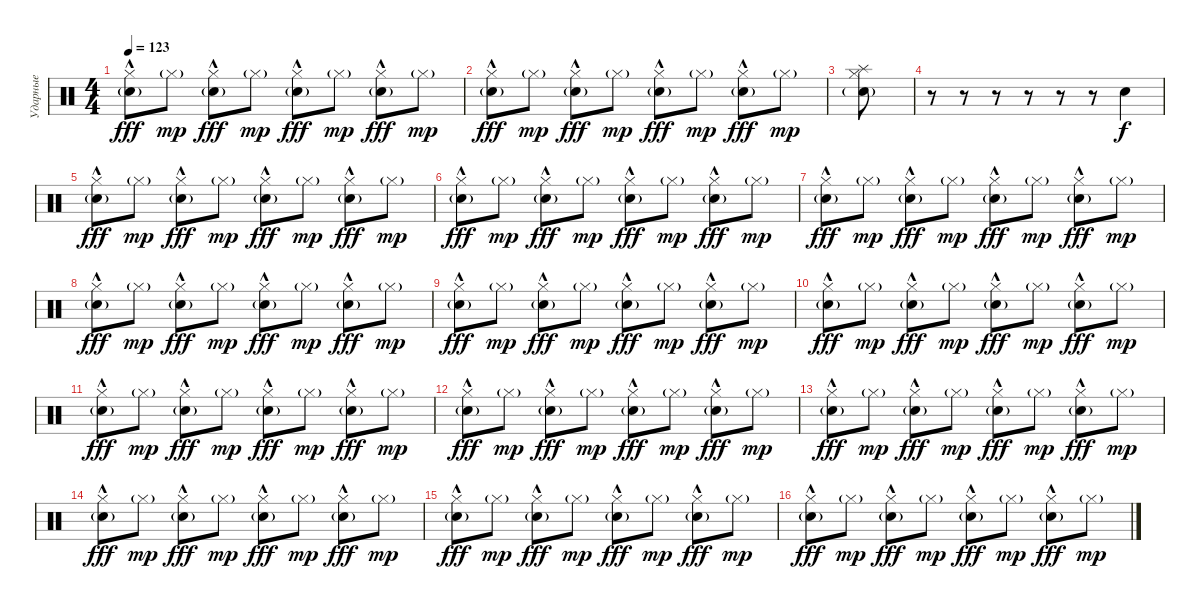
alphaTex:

\track ("Ударные" "Ударные") {instrument percussion}
\staff {score}
\articulation defaults
\ts (4 4)
\tempo 123
\clef neutral
\ks c
("Electric Snare (hit)"{g} "Hi-Hat (closed)"{hac}).8{dy fff} "Hi-Hat (closed)"{g}.8{dy mp} ("Electric Snare (hit)"{g} "Hi-Hat (closed)"{hac}).8{dy fff} "Hi-Hat (closed)"{g}.8{dy mp} ("Electric Snare (hit)"{g} "Hi-Hat (closed)"{hac}).8{dy fff} "Hi-Hat (closed)"{g}.8{dy mp} ("Electric Snare (hit)"{g} "Hi-Hat (closed)"{hac}).8{dy fff} "Hi-Hat (closed)"{g}.8{dy mp} |
("Electric Snare (hit)"{g} "Hi-Hat (closed)"{hac}).8{dy fff} "Hi-Hat (closed)"{g}.8{dy mp} ("Electric Snare (hit)"{g} "Hi-Hat (closed)"{hac}).8{dy fff} "Hi-Hat (closed)"{g}.8{dy mp} ("Electric Snare (hit)"{g} "Hi-Hat (closed)"{hac}).8{dy fff} "Hi-Hat (closed)"{g}.8{dy mp} ("Electric Snare (hit)"{g} "Hi-Hat (closed)"{hac}).8{dy fff} "Hi-Hat (closed)"{g}.8{dy mp} |
("Splash (hit)" "Electric Snare (hit)"{g} "Hi-Hat (closed)").8 |
r.8 r.8 r.8 r.8 r.8 r.8 "Electric Snare (hit)".4{dy f} |
("Electric Snare (hit)"{g} "Hi-Hat (closed)"{hac}).8{dy fff} "Hi-Hat (closed)"{g}.8{dy mp} ("Electric Snare (hit)"{g} "Hi-Hat (closed)"{hac}).8{dy fff} "Hi-Hat (closed)"{g}.8{dy mp} ("Electric Snare (hit)"{g} "Hi-Hat (closed)"{hac}).8{dy fff} "Hi-Hat (closed)"{g}.8{dy mp} ("Electric Snare (hit)"{g} "Hi-Hat (closed)"{hac}).8{dy fff} "Hi-Hat (closed)"{g}.8{dy mp} |
("Electric Snare (hit)"{g} "Hi-Hat (closed)"{hac}).8{dy fff} "Hi-Hat (closed)"{g}.8{dy mp} ("Electric Snare (hit)"{g} "Hi-Hat (closed)"{hac}).8{dy fff} "Hi-Hat (closed)"{g}.8{dy mp} ("Electric Snare (hit)"{g} "Hi-Hat (closed)"{hac}).8{dy fff} "Hi-Hat (closed)"{g}.8{dy mp} ("Electric Snare (hit)"{g} "Hi-Hat (closed)"{hac}).8{dy fff} "Hi-Hat (closed)"{g}.8{dy mp} |
("Electric Snare (hit)"{g} "Hi-Hat (closed)"{hac}).8{dy fff} "Hi-Hat (closed)"{g}.8{dy mp} ("Electric Snare (hit)"{g} "Hi-Hat (closed)"{hac}).8{dy fff} "Hi-Hat (closed)"{g}.8{dy mp} ("Electric Snare (hit)"{g} "Hi-Hat (closed)"{hac}).8{dy fff} "Hi-Hat (closed)"{g}.8{dy mp} ("Electric Snare (hit)"{g} "Hi-Hat (closed)"{hac}).8{dy fff} "Hi-Hat (closed)"{g}.8{dy mp} |
("Electric Snare (hit)"{g} "Hi-Hat (closed)"{hac}).8{dy fff} "Hi-Hat (closed)"{g}.8{dy mp} ("Electric Snare (hit)"{g} "Hi-Hat (closed)"{hac}).8{dy fff} "Hi-Hat (closed)"{g}.8{dy mp} ("Electric Snare (hit)"{g} "Hi-Hat (closed)"{hac}).8{dy fff} "Hi-Hat (closed)"{g}.8{dy mp} ("Electric Snare (hit)"{g} "Hi-Hat (closed)"{hac}).8{dy fff} "Hi-Hat (closed)"{g}.8{dy mp} |
("Electric Snare (hit)"{g} "Hi-Hat (closed)"{hac}).8{dy fff} "Hi-Hat (closed)"{g}.8{dy mp} ("Electric Snare (hit)"{g} "Hi-Hat (closed)"{hac}).8{dy fff} "Hi-Hat (closed)"{g}.8{dy mp} ("Electric Snare (hit)"{g} "Hi-Hat (closed)"{hac}).8{dy fff} "Hi-Hat (closed)"{g}.8{dy mp} ("Electric Snare (hit)"{g} "Hi-Hat (closed)"{hac}).8{dy fff} "Hi-Hat (closed)"{g}.8{dy mp} |
("Electric Snare (hit)"{g} "Hi-Hat (closed)"{hac}).8{dy fff} "Hi-Hat (closed)"{g}.8{dy mp} ("Electric Snare (hit)"{g} "Hi-Hat (closed)"{hac}).8{dy fff} "Hi-Hat (closed)"{g}.8{dy mp} ("Electric Snare (hit)"{g} "Hi-Hat (closed)"{hac}).8{dy fff} "Hi-Hat (closed)"{g}.8{dy mp} ("Electric Snare (hit)"{g} "Hi-Hat (closed)"{hac}).8{dy fff} "Hi-Hat (closed)"{g}.8{dy mp} |
("Electric Snare (hit)"{g} "Hi-Hat (closed)"{hac}).8{dy fff} "Hi-Hat (closed)"{g}.8{dy mp} ("Electric Snare (hit)"{g} "Hi-Hat (closed)"{hac}).8{dy fff} "Hi-Hat (closed)"{g}.8{dy mp} ("Electric Snare (hit)"{g} "Hi-Hat (closed)"{hac}).8{dy fff} "Hi-Hat (closed)"{g}.8{dy mp} ("Electric Snare (hit)"{g} "Hi-Hat (closed)"{hac}).8{dy fff} "Hi-Hat (closed)"{g}.8{dy mp} |
("Electric Snare (hit)"{g} "Hi-Hat (closed)"{hac}).8{dy fff} "Hi-Hat (closed)"{g}.8{dy mp} ("Electric Snare (hit)"{g} "Hi-Hat (closed)"{hac}).8{dy fff} "Hi-Hat (closed)"{g}.8{dy mp} ("Electric Snare (hit)"{g} "Hi-Hat (closed)"{hac}).8{dy fff} "Hi-Hat (closed)"{g}.8{dy mp} ("Electric Snare (hit)"{g} "Hi-Hat (closed)"{hac}).8{dy fff} "Hi-Hat (closed)"{g}.8{dy mp} |
("Electric Snare (hit)"{g} "Hi-Hat (closed)"{hac}).8{dy fff} "Hi-Hat (closed)"{g}.8{dy mp} ("Electric Snare (hit)"{g} "Hi-Hat (closed)"{hac}).8{dy fff} "Hi-Hat (closed)"{g}.8{dy mp} ("Electric Snare (hit)"{g} "Hi-Hat (closed)"{hac}).8{dy fff} "Hi-Hat (closed)"{g}.8{dy mp} ("Electric Snare (hit)"{g} "Hi-Hat (closed)"{hac}).8{dy fff} "Hi-Hat (closed)"{g}.8{dy mp} |
("Electric Snare (hit)"{g} "Hi-Hat (closed)"{hac}).8{dy fff} "Hi-Hat (closed)"{g}.8{dy mp} ("Electric Snare (hit)"{g} "Hi-Hat (closed)"{hac}).8{dy fff} "Hi-Hat (closed)"{g}.8{dy mp} ("Electric Snare (hit)"{g} "Hi-Hat (closed)"{hac}).8{dy fff} "Hi-Hat (closed)"{g}.8{dy mp} ("Electric Snare (hit)"{g} "Hi-Hat (closed)"{hac}).8{dy fff} "Hi-Hat (closed)"{g}.8{dy mp} |
("Electric Snare (hit)"{g} "Hi-Hat (closed)"{hac}).8{dy fff} "Hi-Hat (closed)"{g}.8{dy mp} ("Electric Snare (hit)"{g} "Hi-Hat (closed)"{hac}).8{dy fff} "Hi-Hat (closed)"{g}.8{dy mp} ("Electric Snare (hit)"{g} "Hi-Hat (closed)"{hac}).8{dy fff} "Hi-Hat (closed)"{g}.8{dy mp} ("Electric Snare (hit)"{g} "Hi-Hat (closed)"{hac}).8{dy fff} "Hi-Hat (closed)"{g}.8{dy mp} |
("Electric Snare (hit)"{g} "Hi-Hat (closed)"{hac}).8{dy fff} "Hi-Hat (closed)"{g}.8{dy mp} ("Electric Snare (hit)"{g} "Hi-Hat (closed)"{hac}).8{dy fff} "Hi-Hat (closed)"{g}.8{dy mp} ("Electric Snare (hit)"{g} "Hi-Hat (closed)"{hac}).8{dy fff} "Hi-Hat (closed)"{g}.8{dy mp} ("Electric Snare (hit)"{g} "Hi-Hat (closed)"{hac}).8{dy fff} "Hi-Hat (closed)"{g}.8{dy mp}
